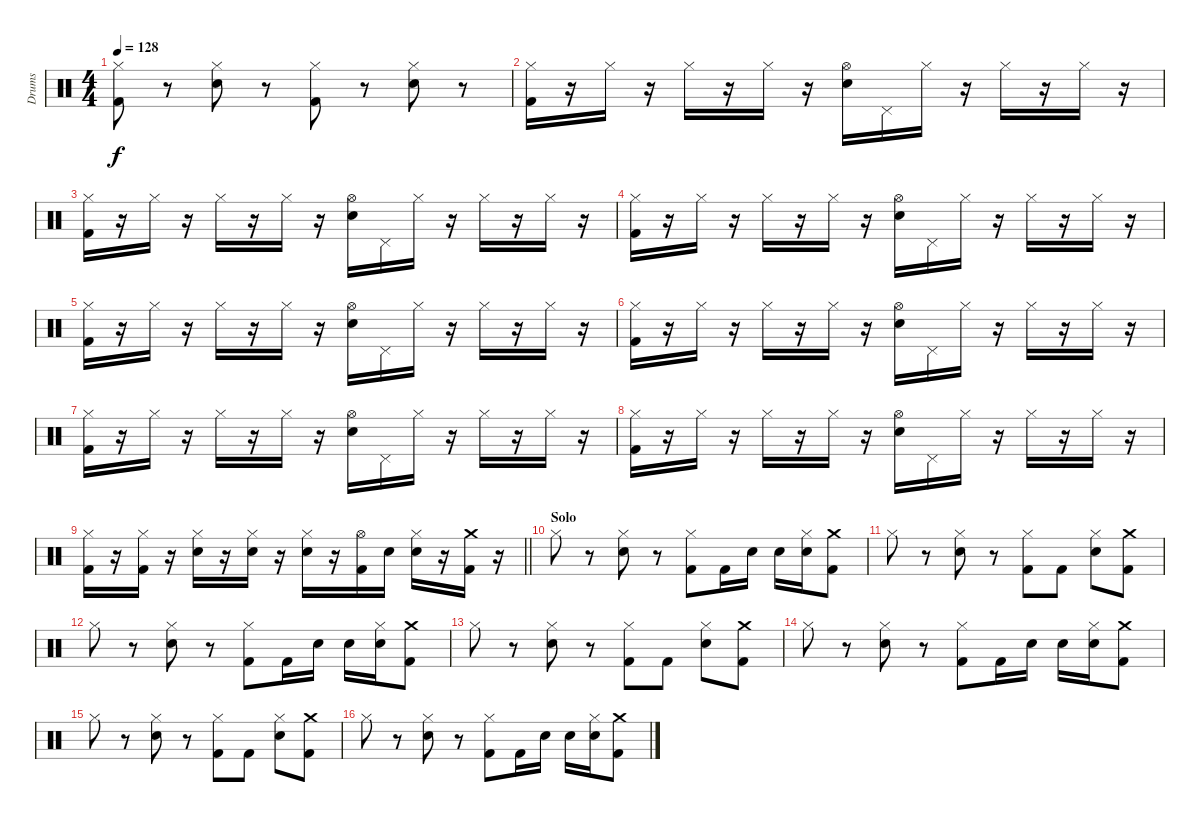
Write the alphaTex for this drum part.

\track ("Drums" "Drums") {instrument percussion}
\staff {score}
\articulation defaults
\ts (4 4)
\tempo 128
\clef neutral
\ks c
("Hi-Hat (closed)" "Kick (hit) 2").8{dy f} r.8 ("Hi-Hat (closed)" "Snare (hit) 2").8 r.8 ("Hi-Hat (closed)" "Kick (hit) 2").8 r.8 ("Hi-Hat (closed)" "Snare (hit) 2").8 r.8 |
("Hi-Hat (closed)" "Kick (hit) 2").16 r.16 "Hi-Hat (closed)".16 r.16 "Hi-Hat (closed)".16 r.16 "Hi-Hat (closed)".16 r.16 ("Hi-Hat (open)" "Snare (hit) 2").16 "Pedal Hi-Hat (hit)".16 "Hi-Hat (closed)".16 r.16 "Hi-Hat (closed)".16 r.16 "Hi-Hat (closed)".16 r.16 |
("Hi-Hat (closed)" "Kick (hit) 2").16 r.16 "Hi-Hat (closed)".16 r.16 "Hi-Hat (closed)".16 r.16 "Hi-Hat (closed)".16 r.16 ("Hi-Hat (open)" "Snare (hit) 2").16 "Pedal Hi-Hat (hit)".16 "Hi-Hat (closed)".16 r.16 "Hi-Hat (closed)".16 r.16 "Hi-Hat (closed)".16 r.16 |
("Hi-Hat (closed)" "Kick (hit) 2").16 r.16 "Hi-Hat (closed)".16 r.16 "Hi-Hat (closed)".16 r.16 "Hi-Hat (closed)".16 r.16 ("Hi-Hat (open)" "Snare (hit) 2").16 "Pedal Hi-Hat (hit)".16 "Hi-Hat (closed)".16 r.16 "Hi-Hat (closed)".16 r.16 "Hi-Hat (closed)".16 r.16 |
("Hi-Hat (closed)" "Kick (hit) 2").16 r.16 "Hi-Hat (closed)".16 r.16 "Hi-Hat (closed)".16 r.16 "Hi-Hat (closed)".16 r.16 ("Hi-Hat (open)" "Snare (hit) 2").16 "Pedal Hi-Hat (hit)".16 "Hi-Hat (closed)".16 r.16 "Hi-Hat (closed)".16 r.16 "Hi-Hat (closed)".16 r.16 |
("Hi-Hat (closed)" "Kick (hit) 2").16 r.16 "Hi-Hat (closed)".16 r.16 "Hi-Hat (closed)".16 r.16 "Hi-Hat (closed)".16 r.16 ("Hi-Hat (open)" "Snare (hit) 2").16 "Pedal Hi-Hat (hit)".16 "Hi-Hat (closed)".16 r.16 "Hi-Hat (closed)".16 r.16 "Hi-Hat (closed)".16 r.16 |
("Hi-Hat (closed)" "Kick (hit) 2").16 r.16 "Hi-Hat (closed)".16 r.16 "Hi-Hat (closed)".16 r.16 "Hi-Hat (closed)".16 r.16 ("Hi-Hat (open)" "Snare (hit) 2").16 "Pedal Hi-Hat (hit)".16 "Hi-Hat (closed)".16 r.16 "Hi-Hat (closed)".16 r.16 "Hi-Hat (closed)".16 r.16 |
("Hi-Hat (closed)" "Kick (hit) 2").16 r.16 "Hi-Hat (closed)".16 r.16 "Hi-Hat (closed)".16 r.16 "Hi-Hat (closed)".16 r.16 ("Hi-Hat (open)" "Snare (hit) 2").16 "Pedal Hi-Hat (hit)".16 "Hi-Hat (closed)".16 r.16 "Hi-Hat (closed)".16 r.16 "Hi-Hat (closed)".16 r.16 |
\barLineRight lightlight
("Hi-Hat (closed)" "Kick (hit) 2").16 r.16 ("Hi-Hat (closed)" "Kick (hit) 2").16 r.16 ("Hi-Hat (closed)" "Snare (hit) 2").16 r.16 ("Hi-Hat (closed)" "Snare (hit) 2").16 r.16 ("Hi-Hat (closed)" "Snare (hit) 2").16 r.16 ("Hi-Hat (open)" "Kick (hit) 2").16 "Snare (hit) 2".16 ("Hi-Hat (closed)" "Snare (hit) 2").16 r.16 ("Crash medium (hit)" "Kick (hit) 2").16 r.16 |
\section ("" "Solo")
"Hi-Hat (closed)".8 r.8 ("Hi-Hat (closed)" "Snare (hit) 2").8 r.8 ("Hi-Hat (closed)" "Kick (hit) 2").8 "Kick (hit) 2".16 "Snare (hit) 2".16 "Snare (hit) 2".16 ("Hi-Hat (closed)" "Snare (hit) 2").16 ("Crash medium (hit)" "Kick (hit) 2").8 |
"Hi-Hat (closed)".8 r.8 ("Hi-Hat (closed)" "Snare (hit) 2").8 r.8 ("Hi-Hat (closed)" "Kick (hit) 2").8 "Kick (hit) 2".8 ("Hi-Hat (closed)" "Snare (hit) 2").8 ("Crash medium (hit)" "Kick (hit) 2").8 |
"Hi-Hat (closed)".8 r.8 ("Hi-Hat (closed)" "Snare (hit) 2").8 r.8 ("Hi-Hat (closed)" "Kick (hit) 2").8 "Kick (hit) 2".16 "Snare (hit) 2".16 "Snare (hit) 2".16 ("Hi-Hat (closed)" "Snare (hit) 2").16 ("Crash medium (hit)" "Kick (hit) 2").8 |
"Hi-Hat (closed)".8 r.8 ("Hi-Hat (closed)" "Snare (hit) 2").8 r.8 ("Hi-Hat (closed)" "Kick (hit) 2").8 "Kick (hit) 2".8 ("Hi-Hat (closed)" "Snare (hit) 2").8 ("Crash medium (hit)" "Kick (hit) 2").8 |
"Hi-Hat (closed)".8 r.8 ("Hi-Hat (closed)" "Snare (hit) 2").8 r.8 ("Hi-Hat (closed)" "Kick (hit) 2").8 "Kick (hit) 2".16 "Snare (hit) 2".16 "Snare (hit) 2".16 ("Hi-Hat (closed)" "Snare (hit) 2").16 ("Crash medium (hit)" "Kick (hit) 2").8 |
"Hi-Hat (closed)".8 r.8 ("Hi-Hat (closed)" "Snare (hit) 2").8 r.8 ("Hi-Hat (closed)" "Kick (hit) 2").8 "Kick (hit) 2".8 ("Hi-Hat (closed)" "Snare (hit) 2").8 ("Crash medium (hit)" "Kick (hit) 2").8 |
"Hi-Hat (closed)".8 r.8 ("Hi-Hat (closed)" "Snare (hit) 2").8 r.8 ("Hi-Hat (closed)" "Kick (hit) 2").8 "Kick (hit) 2".16 "Snare (hit) 2".16 "Snare (hit) 2".16 ("Hi-Hat (closed)" "Snare (hit) 2").16 ("Crash medium (hit)" "Kick (hit) 2").8
